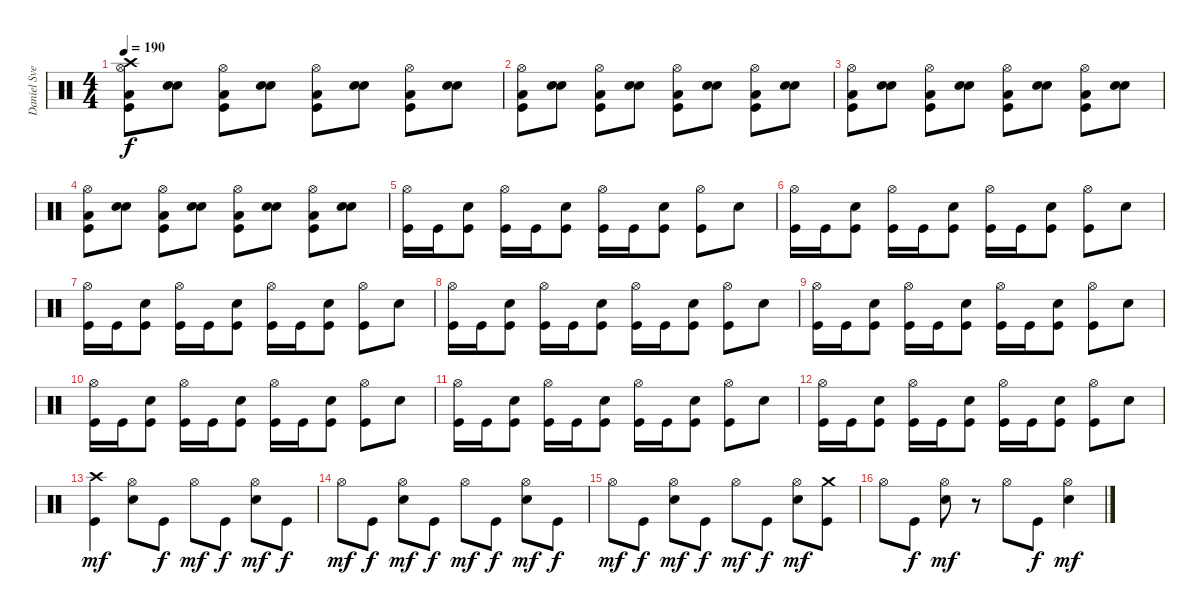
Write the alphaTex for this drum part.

\track ("Daniel Svensson" "Daniel Sve") {instrument percussion}
\staff {score}
\articulation defaults
\ts (4 4)
\tempo 190
\clef neutral
\ks c
("Crash high (hit)" "Hi-Hat (open)" "Low Floor Tom (hit)" "Kick (hit)").8{dy f} ("Electric Snare (hit)" "Electric Snare (hit)").8 ("Hi-Hat (open)" "Low Floor Tom (hit)" "Kick (hit)").8 ("Electric Snare (hit)" "Electric Snare (hit)").8 ("Hi-Hat (open)" "Low Floor Tom (hit)" "Kick (hit)").8 ("Electric Snare (hit)" "Electric Snare (hit)").8 ("Hi-Hat (open)" "Low Floor Tom (hit)" "Kick (hit)").8 ("Electric Snare (hit)" "Electric Snare (hit)").8 |
("Hi-Hat (open)" "Low Floor Tom (hit)" "Kick (hit)").8 ("Electric Snare (hit)" "Electric Snare (hit)").8 ("Hi-Hat (open)" "Low Floor Tom (hit)" "Kick (hit)").8 ("Electric Snare (hit)" "Electric Snare (hit)").8 ("Hi-Hat (open)" "Low Floor Tom (hit)" "Kick (hit)").8 ("Electric Snare (hit)" "Electric Snare (hit)").8 ("Hi-Hat (open)" "Low Floor Tom (hit)" "Kick (hit)").8 ("Electric Snare (hit)" "Electric Snare (hit)").8 |
("Hi-Hat (open)" "Low Floor Tom (hit)" "Kick (hit)").8 ("Electric Snare (hit)" "Electric Snare (hit)").8 ("Hi-Hat (open)" "Low Floor Tom (hit)" "Kick (hit)").8 ("Electric Snare (hit)" "Electric Snare (hit)").8 ("Hi-Hat (open)" "Low Floor Tom (hit)" "Kick (hit)").8 ("Electric Snare (hit)" "Electric Snare (hit)").8 ("Hi-Hat (open)" "Low Floor Tom (hit)" "Kick (hit)").8 ("Electric Snare (hit)" "Electric Snare (hit)").8 |
("Hi-Hat (open)" "Low Floor Tom (hit)" "Kick (hit)").8 ("Electric Snare (hit)" "Electric Snare (hit)").8 ("Hi-Hat (open)" "Low Floor Tom (hit)" "Kick (hit)").8 ("Electric Snare (hit)" "Electric Snare (hit)").8 ("Hi-Hat (open)" "Low Floor Tom (hit)" "Kick (hit)").8 ("Electric Snare (hit)" "Electric Snare (hit)").8 ("Hi-Hat (open)" "Low Floor Tom (hit)" "Kick (hit)").8 ("Electric Snare (hit)" "Electric Snare (hit)").8 |
("Hi-Hat (open)" "Kick (hit)").16 "Kick (hit)".16 ("Electric Snare (hit)" "Kick (hit)").8 ("Hi-Hat (open)" "Kick (hit)").16 "Kick (hit)".16 ("Electric Snare (hit)" "Kick (hit)").8 ("Hi-Hat (open)" "Kick (hit)").16 "Kick (hit)".16 ("Electric Snare (hit)" "Kick (hit)").8 ("Hi-Hat (open)" "Kick (hit)").8 "Electric Snare (hit)".8 |
("Hi-Hat (open)" "Kick (hit)").16 "Kick (hit)".16 ("Electric Snare (hit)" "Kick (hit)").8 ("Hi-Hat (open)" "Kick (hit)").16 "Kick (hit)".16 ("Electric Snare (hit)" "Kick (hit)").8 ("Hi-Hat (open)" "Kick (hit)").16 "Kick (hit)".16 ("Electric Snare (hit)" "Kick (hit)").8 ("Hi-Hat (open)" "Kick (hit)").8 "Electric Snare (hit)".8 |
("Hi-Hat (open)" "Kick (hit)").16 "Kick (hit)".16 ("Electric Snare (hit)" "Kick (hit)").8 ("Hi-Hat (open)" "Kick (hit)").16 "Kick (hit)".16 ("Electric Snare (hit)" "Kick (hit)").8 ("Hi-Hat (open)" "Kick (hit)").16 "Kick (hit)".16 ("Electric Snare (hit)" "Kick (hit)").8 ("Hi-Hat (open)" "Kick (hit)").8 "Electric Snare (hit)".8 |
("Hi-Hat (open)" "Kick (hit)").16 "Kick (hit)".16 ("Electric Snare (hit)" "Kick (hit)").8 ("Hi-Hat (open)" "Kick (hit)").16 "Kick (hit)".16 ("Electric Snare (hit)" "Kick (hit)").8 ("Hi-Hat (open)" "Kick (hit)").16 "Kick (hit)".16 ("Electric Snare (hit)" "Kick (hit)").8 ("Hi-Hat (open)" "Kick (hit)").8 "Electric Snare (hit)".8 |
("Hi-Hat (open)" "Kick (hit)").16 "Kick (hit)".16 ("Electric Snare (hit)" "Kick (hit)").8 ("Hi-Hat (open)" "Kick (hit)").16 "Kick (hit)".16 ("Electric Snare (hit)" "Kick (hit)").8 ("Hi-Hat (open)" "Kick (hit)").16 "Kick (hit)".16 ("Electric Snare (hit)" "Kick (hit)").8 ("Hi-Hat (open)" "Kick (hit)").8 "Electric Snare (hit)".8 |
("Hi-Hat (open)" "Kick (hit)").16 "Kick (hit)".16 ("Electric Snare (hit)" "Kick (hit)").8 ("Hi-Hat (open)" "Kick (hit)").16 "Kick (hit)".16 ("Electric Snare (hit)" "Kick (hit)").8 ("Hi-Hat (open)" "Kick (hit)").16 "Kick (hit)".16 ("Electric Snare (hit)" "Kick (hit)").8 ("Hi-Hat (open)" "Kick (hit)").8 "Electric Snare (hit)".8 |
("Hi-Hat (open)" "Kick (hit)").16 "Kick (hit)".16 ("Electric Snare (hit)" "Kick (hit)").8 ("Hi-Hat (open)" "Kick (hit)").16 "Kick (hit)".16 ("Electric Snare (hit)" "Kick (hit)").8 ("Hi-Hat (open)" "Kick (hit)").16 "Kick (hit)".16 ("Electric Snare (hit)" "Kick (hit)").8 ("Hi-Hat (open)" "Kick (hit)").8 "Electric Snare (hit)".8 |
("Hi-Hat (open)" "Kick (hit)").16 "Kick (hit)".16 ("Electric Snare (hit)" "Kick (hit)").8 ("Hi-Hat (open)" "Kick (hit)").16 "Kick (hit)".16 ("Electric Snare (hit)" "Kick (hit)").8 ("Hi-Hat (open)" "Kick (hit)").16 "Kick (hit)".16 ("Electric Snare (hit)" "Kick (hit)").8 ("Hi-Hat (open)" "Kick (hit)").8 "Electric Snare (hit)".8 |
("Kick (hit)" "Crash high (hit)").4{dy mf} ("Electric Snare (hit)" "Hi-Hat (open)").8 "Kick (hit)".8{dy f} "Hi-Hat (open)".8{dy mf} "Kick (hit)".8{dy f} ("Electric Snare (hit)" "Hi-Hat (open)").8{dy mf} "Kick (hit)".8{dy f} |
"Hi-Hat (open)".8{dy mf} "Kick (hit)".8{dy f} ("Electric Snare (hit)" "Hi-Hat (open)").8{dy mf} "Kick (hit)".8{dy f} "Hi-Hat (open)".8{dy mf} "Kick (hit)".8{dy f} ("Electric Snare (hit)" "Hi-Hat (open)").8{dy mf} "Kick (hit)".8{dy f} |
"Hi-Hat (open)".8{dy mf} "Kick (hit)".8{dy f} ("Electric Snare (hit)" "Hi-Hat (open)").8{dy mf} "Kick (hit)".8{dy f} "Hi-Hat (open)".8{dy mf} "Kick (hit)".8{dy f} ("Electric Snare (hit)" "Hi-Hat (open)").8{dy mf} ("Kick (hit)" "Crash medium (hit)").8 |
"Hi-Hat (open)".8 "Kick (hit)".8{dy f} ("Electric Snare (hit)" "Hi-Hat (open)").8{dy mf} r.8 "Hi-Hat (open)".8 "Kick (hit)".8{dy f} ("Electric Snare (hit)" "Hi-Hat (open)").4{dy mf}
